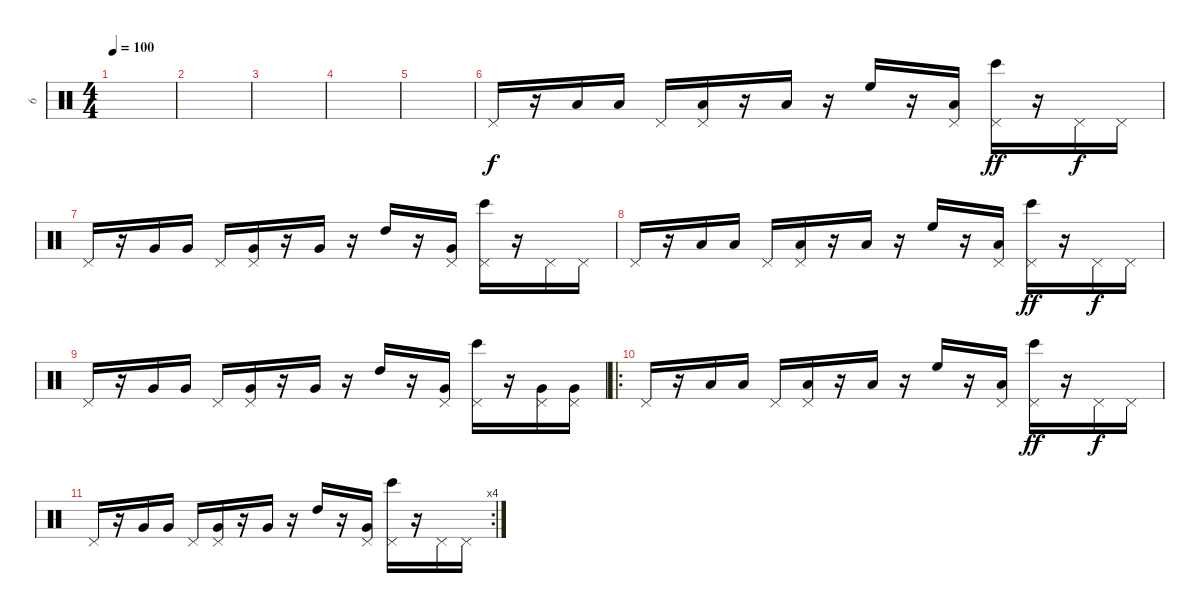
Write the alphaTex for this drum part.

\track ("6" "6") {instrument percussion}
\staff {score}
\articulation defaults
\ts (4 4)
\tempo 100
\clef neutral
\ks c
|
|
|
|
|
"Pedal Hi-Hat (hit)".16 r.16 "Low Tom (hit)".16 "Low Tom (hit)".16 "Pedal Hi-Hat (hit)".16 ("Low Tom (hit)" "Pedal Hi-Hat (hit)").16 r.16 "Low Tom (hit)".16 r.16 "High Floor Tom (hit)".16 r.16 ("Low Tom (hit)" "Pedal Hi-Hat (hit)").16 ("Bongo High (hit)" "Pedal Hi-Hat (hit)").16{dy ff} r.16 "Pedal Hi-Hat (hit)".16{dy f} "Pedal Hi-Hat (hit)".16 |
"Pedal Hi-Hat (hit)".16 r.16 "Very Low Tom (hit)".16 "Very Low Tom (hit)".16 "Pedal Hi-Hat (hit)".16 ("Very Low Tom (hit)" "Pedal Hi-Hat (hit)").16 r.16 "Very Low Tom (hit)".16 r.16 "High Tom (hit)".16 r.16 ("Very Low Tom (hit)" "Pedal Hi-Hat (hit)").16 ("Bongo High (hit)" "Pedal Hi-Hat (hit)").16 r.16 "Pedal Hi-Hat (hit)".16 "Pedal Hi-Hat (hit)".16 |
"Pedal Hi-Hat (hit)".16 r.16 "Low Tom (hit)".16 "Low Tom (hit)".16 "Pedal Hi-Hat (hit)".16 ("Low Tom (hit)" "Pedal Hi-Hat (hit)").16 r.16 "Low Tom (hit)".16 r.16 "High Floor Tom (hit)".16 r.16 ("Low Tom (hit)" "Pedal Hi-Hat (hit)").16 ("Bongo High (hit)" "Pedal Hi-Hat (hit)").16{dy ff} r.16 "Pedal Hi-Hat (hit)".16{dy f} "Pedal Hi-Hat (hit)".16 |
"Pedal Hi-Hat (hit)".16 r.16 "Very Low Tom (hit)".16 "Very Low Tom (hit)".16 "Pedal Hi-Hat (hit)".16 ("Very Low Tom (hit)" "Pedal Hi-Hat (hit)").16 r.16 "Very Low Tom (hit)".16 r.16 "High Tom (hit)".16 r.16 ("Very Low Tom (hit)" "Pedal Hi-Hat (hit)").16 ("Bongo High (hit)" "Pedal Hi-Hat (hit)").16 r.16 ("Very Low Tom (hit)" "Pedal Hi-Hat (hit)").16 ("Very Low Tom (hit)" "Pedal Hi-Hat (hit)").16 |
\ro "Pedal Hi-Hat (hit)".16
r.16 "Low Tom (hit)".16 "Low Tom (hit)".16 "Pedal Hi-Hat (hit)".16 ("Low Tom (hit)" "Pedal Hi-Hat (hit)").16 r.16 "Low Tom (hit)".16 r.16 "High Floor Tom (hit)".16 r.16 ("Low Tom (hit)" "Pedal Hi-Hat (hit)").16 ("Bongo High (hit)" "Pedal Hi-Hat (hit)").16{dy ff} r.16 "Pedal Hi-Hat (hit)".16{dy f} "Pedal Hi-Hat (hit)".16 |
\rc 4 "Pedal Hi-Hat (hit)".16
r.16 "Very Low Tom (hit)".16 "Very Low Tom (hit)".16 "Pedal Hi-Hat (hit)".16 ("Very Low Tom (hit)" "Pedal Hi-Hat (hit)").16 r.16 "Very Low Tom (hit)".16 r.16 "High Tom (hit)".16 r.16 ("Very Low Tom (hit)" "Pedal Hi-Hat (hit)").16 ("Bongo High (hit)" "Pedal Hi-Hat (hit)").16 r.16 "Pedal Hi-Hat (hit)".16 "Pedal Hi-Hat (hit)".16
